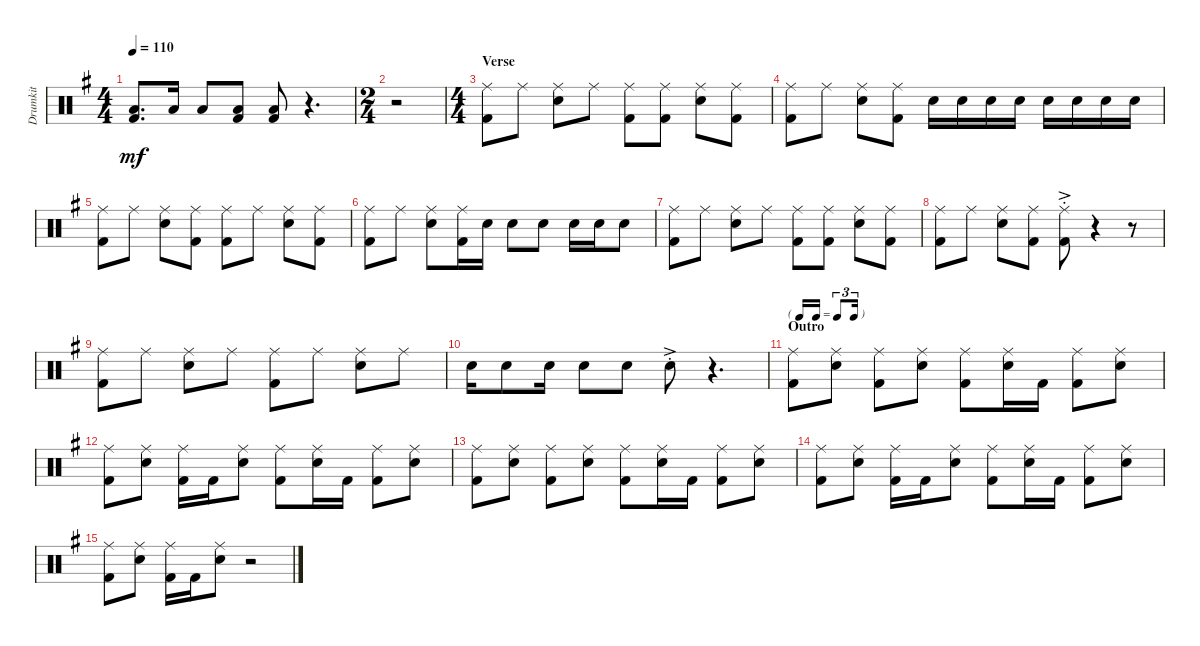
\track ("Drumkit" "Drumkit") {instrument percussion}
\staff {score}
\articulation defaults
\ts (4 4)
\tempo 110
\clef neutral
\ks g
("Kick (hit) 2" "Low Floor Tom (hit)").8{d dy mf} "Low Floor Tom (hit)".16 "Low Floor Tom (hit)".8 ("Low Floor Tom (hit)" "Kick (hit) 2").8 ("Low Floor Tom (hit)" "Kick (hit) 2").8 r.4{d} |
\ts (2 4)
r.2 |
\ts (4 4)
\section ("" "Verse")
("Kick (hit) 2" "Ride (middle)").8 "Ride (middle)".8 ("Snare (hit) 2" "Ride (middle)").8 "Ride (middle)".8 ("Kick (hit) 2" "Ride (middle)").8 ("Kick (hit) 2" "Ride (middle)").8 ("Snare (hit) 2" "Ride (middle)").8 ("Ride (middle)" "Kick (hit) 2").8 |
("Kick (hit) 2" "Ride (middle)").8 "Ride (middle)".8 ("Snare (hit) 2" "Ride (middle)").8 ("Ride (middle)" "Kick (hit) 2").8 "Snare (hit) 2".16 "Snare (hit) 2".16 "Snare (hit) 2".16 "Snare (hit) 2".16 "Snare (hit) 2".16 "Snare (hit) 2".16 "Snare (hit) 2".16 "Snare (hit) 2".16 |
("Kick (hit) 2" "Ride (middle)").8 "Ride (middle)".8 ("Snare (hit) 2" "Ride (middle)").8 ("Ride (middle)" "Kick (hit) 2").8 ("Kick (hit) 2" "Ride (middle)").8 "Ride (middle)".8 ("Snare (hit) 2" "Ride (middle)").8 ("Kick (hit) 2" "Ride (middle)").8 |
("Kick (hit) 2" "Ride (middle)").8 "Ride (middle)".8 ("Snare (hit) 2" "Ride (middle)").8 ("Ride (middle)" "Kick (hit) 2").16 "Snare (hit) 2".16 "Snare (hit) 2".8 "Snare (hit) 2".8 "Snare (hit) 2".16 "Snare (hit) 2".16 "Snare (hit) 2".8 |
("Kick (hit) 2" "Ride (middle)").8 "Ride (middle)".8 ("Snare (hit) 2" "Ride (middle)").8 "Ride (middle)".8 ("Kick (hit) 2" "Ride (middle)").8 ("Kick (hit) 2" "Ride (middle)").8 ("Snare (hit) 2" "Ride (middle)").8 ("Ride (middle)" "Kick (hit) 2").8 |
("Kick (hit) 2" "Ride (middle)").8 "Ride (middle)".8 ("Snare (hit) 2" "Ride (middle)").8 ("Ride (middle)" "Kick (hit) 2").8 ("Kick (hit) 2"{ac st} "Ride (middle)").8 r.4 r.8 |
("Kick (hit) 2" "Ride (middle)").8 "Ride (middle)".8 ("Snare (hit) 2" "Ride (middle)").8 "Ride (middle)".8 ("Kick (hit) 2" "Ride (middle)").8 "Ride (middle)".8 ("Snare (hit) 2" "Ride (middle)").8 "Ride (middle)".8 |
"Snare (hit) 2".16 "Snare (hit) 2".8 "Snare (hit) 2".16 "Snare (hit) 2".8 "Snare (hit) 2".8 "Snare (hit) 2"{ac st}.8 r.4{d} |
\tf triplet16th
\section ("" "Outro")
("Kick (hit) 2" "Ride (middle)").8 ("Snare (hit) 2" "Ride (middle)").8 ("Kick (hit) 2" "Ride (middle)").8 ("Snare (hit) 2" "Ride (middle)").8 ("Kick (hit) 2" "Ride (middle)").8 ("Snare (hit) 2" "Ride (middle)").16 "Kick (hit) 2".16 ("Kick (hit) 2" "Ride (middle)").8 ("Ride (middle)" "Snare (hit) 2").8 |
("Kick (hit) 2" "Ride (middle)").8 ("Snare (hit) 2" "Ride (middle)").8 ("Kick (hit) 2" "Ride (middle)").16 "Kick (hit) 2".16 ("Snare (hit) 2" "Ride (middle)").8 ("Kick (hit) 2" "Ride (middle)").8 ("Snare (hit) 2" "Ride (middle)").16 "Kick (hit) 2".16 ("Kick (hit) 2" "Ride (middle)").8 ("Snare (hit) 2" "Ride (middle)").8 |
("Kick (hit) 2" "Ride (middle)").8 ("Snare (hit) 2" "Ride (middle)").8 ("Kick (hit) 2" "Ride (middle)").8 ("Snare (hit) 2" "Ride (middle)").8 ("Kick (hit) 2" "Ride (middle)").8 ("Snare (hit) 2" "Ride (middle)").16 "Kick (hit) 2".16 ("Kick (hit) 2" "Ride (middle)").8 ("Ride (middle)" "Snare (hit) 2").8 |
("Kick (hit) 2" "Ride (middle)").8 ("Snare (hit) 2" "Ride (middle)").8 ("Kick (hit) 2" "Ride (middle)").16 "Kick (hit) 2".16 ("Snare (hit) 2" "Ride (middle)").8 ("Kick (hit) 2" "Ride (middle)").8 ("Snare (hit) 2" "Ride (middle)").16 "Kick (hit) 2".16 ("Kick (hit) 2" "Ride (middle)").8 ("Snare (hit) 2" "Ride (middle)").8 |
("Kick (hit) 2" "Ride (middle)").8 ("Snare (hit) 2" "Ride (middle)").8 ("Kick (hit) 2" "Ride (middle)").16 "Kick (hit) 2".16 ("Snare (hit) 2" "Ride (middle)").8 r.2
